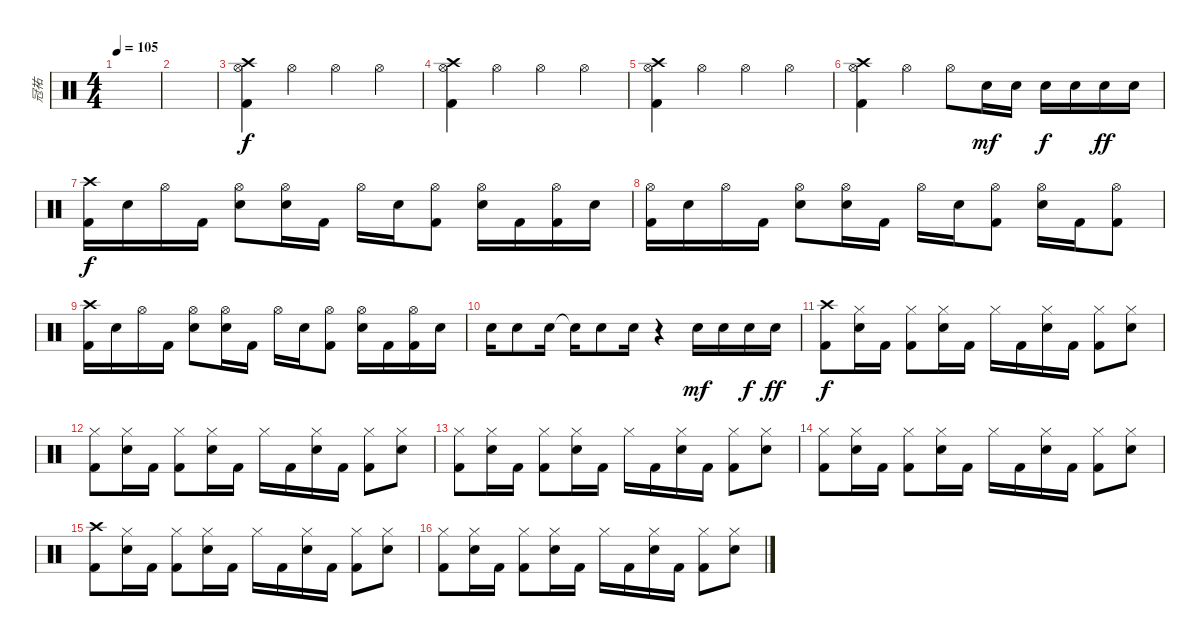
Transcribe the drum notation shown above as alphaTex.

\track ("冠祐" "冠祐") {instrument percussion}
\staff {score}
\articulation defaults
\ts (4 4)
\tempo 105
\clef neutral
\ks c
|
|
("Crash high (hit)" "Hi-Hat (open)" "Kick (hit) 2").4 "Hi-Hat (open)".4 "Hi-Hat (open)".4 "Hi-Hat (open)".4 |
("Crash high (hit)" "Hi-Hat (open)" "Kick (hit) 2").4 "Hi-Hat (open)".4 "Hi-Hat (open)".4 "Hi-Hat (open)".4 |
("Crash high (hit)" "Hi-Hat (open)" "Kick (hit) 2").4 "Hi-Hat (open)".4 "Hi-Hat (open)".4 "Hi-Hat (open)".4 |
("Crash high (hit)" "Hi-Hat (open)" "Kick (hit) 2").4 "Hi-Hat (open)".4 "Hi-Hat (open)".8 "Electric Snare (hit)".16{dy mf} "Electric Snare (hit)".16 "Electric Snare (hit)".16{dy f} "Electric Snare (hit)".16 "Electric Snare (hit)".16{dy ff} "Electric Snare (hit)".16 |
("Crash high (hit)" "Kick (hit) 2").16{dy f} "Electric Snare (hit)".16 "Hi-Hat (open)".16 "Kick (hit) 2".16 ("Hi-Hat (open)" "Electric Snare (hit)").8 ("Hi-Hat (open)" "Electric Snare (hit)").16 "Kick (hit) 2".16 "Hi-Hat (open)".16 "Electric Snare (hit)".16 ("Hi-Hat (open)" "Kick (hit) 2").8 ("Hi-Hat (open)" "Electric Snare (hit)").16 "Kick (hit) 2".16 ("Hi-Hat (open)" "Kick (hit) 2").16 "Electric Snare (hit)".16 |
("Hi-Hat (open)" "Kick (hit) 2").16 "Electric Snare (hit)".16 "Hi-Hat (open)".16 "Kick (hit) 2".16 ("Hi-Hat (open)" "Electric Snare (hit)").8 ("Hi-Hat (open)" "Electric Snare (hit)").16 "Kick (hit) 2".16 "Hi-Hat (open)".16 "Electric Snare (hit)".16 ("Hi-Hat (open)" "Kick (hit) 2").8 ("Hi-Hat (open)" "Electric Snare (hit)").16 "Kick (hit) 2".16 ("Hi-Hat (open)" "Kick (hit) 2").8 |
("Crash high (hit)" "Kick (hit) 2").16 "Electric Snare (hit)".16 "Hi-Hat (open)".16 "Kick (hit) 2".16 ("Hi-Hat (open)" "Electric Snare (hit)").8 ("Hi-Hat (open)" "Electric Snare (hit)").16 "Kick (hit) 2".16 "Hi-Hat (open)".16 "Electric Snare (hit)".16 ("Hi-Hat (open)" "Kick (hit) 2").8 ("Hi-Hat (open)" "Electric Snare (hit)").16 "Kick (hit) 2".16 ("Hi-Hat (open)" "Kick (hit) 2").16 "Electric Snare (hit)".16 |
"Electric Snare (hit)".16 "Electric Snare (hit)".8 "Electric Snare (hit)".16 "Electric Snare (hit)"{t}.16 "Electric Snare (hit)".8 "Electric Snare (hit)".16 r.4 "Electric Snare (hit)".16{dy mf} "Electric Snare (hit)".16 "Electric Snare (hit)".16{dy f} "Electric Snare (hit)".16{dy ff} |
("Crash high (hit)" "Kick (hit) 2").8{dy f} ("Hi-Hat (closed)" "Electric Snare (hit)").16 "Kick (hit) 2".16 ("Hi-Hat (closed)" "Kick (hit) 2").8 ("Hi-Hat (closed)" "Electric Snare (hit)").16 "Kick (hit) 2".16 "Hi-Hat (closed)".16 "Kick (hit) 2".16 ("Hi-Hat (closed)" "Electric Snare (hit)").16 "Kick (hit) 2".16 ("Hi-Hat (closed)" "Kick (hit) 2").8 ("Hi-Hat (closed)" "Electric Snare (hit)").8 |
("Hi-Hat (closed)" "Kick (hit) 2").8 ("Hi-Hat (closed)" "Electric Snare (hit)").16 "Kick (hit) 2".16 ("Hi-Hat (closed)" "Kick (hit) 2").8 ("Hi-Hat (closed)" "Electric Snare (hit)").16 "Kick (hit) 2".16 "Hi-Hat (closed)".16 "Kick (hit) 2".16 ("Hi-Hat (closed)" "Electric Snare (hit)").16 "Kick (hit) 2".16 ("Hi-Hat (closed)" "Kick (hit) 2").8 ("Hi-Hat (closed)" "Electric Snare (hit)").8 |
("Hi-Hat (closed)" "Kick (hit) 2").8 ("Hi-Hat (closed)" "Electric Snare (hit)").16 "Kick (hit) 2".16 ("Hi-Hat (closed)" "Kick (hit) 2").8 ("Hi-Hat (closed)" "Electric Snare (hit)").16 "Kick (hit) 2".16 "Hi-Hat (closed)".16 "Kick (hit) 2".16 ("Hi-Hat (closed)" "Electric Snare (hit)").16 "Kick (hit) 2".16 ("Hi-Hat (closed)" "Kick (hit) 2").8 ("Hi-Hat (closed)" "Electric Snare (hit)").8 |
("Hi-Hat (closed)" "Kick (hit) 2").8 ("Hi-Hat (closed)" "Electric Snare (hit)").16 "Kick (hit) 2".16 ("Hi-Hat (closed)" "Kick (hit) 2").8 ("Hi-Hat (closed)" "Electric Snare (hit)").16 "Kick (hit) 2".16 "Hi-Hat (closed)".16 "Kick (hit) 2".16 ("Hi-Hat (closed)" "Electric Snare (hit)").16 "Kick (hit) 2".16 ("Hi-Hat (closed)" "Kick (hit) 2").8 ("Hi-Hat (closed)" "Electric Snare (hit)").8 |
("Crash high (hit)" "Kick (hit) 2").8 ("Hi-Hat (closed)" "Electric Snare (hit)").16 "Kick (hit) 2".16 ("Hi-Hat (closed)" "Kick (hit) 2").8 ("Hi-Hat (closed)" "Electric Snare (hit)").16 "Kick (hit) 2".16 "Hi-Hat (closed)".16 "Kick (hit) 2".16 ("Hi-Hat (closed)" "Electric Snare (hit)").16 "Kick (hit) 2".16 ("Hi-Hat (closed)" "Kick (hit) 2").8 ("Hi-Hat (closed)" "Electric Snare (hit)").8 |
("Hi-Hat (closed)" "Kick (hit) 2").8 ("Hi-Hat (closed)" "Electric Snare (hit)").16 "Kick (hit) 2".16 ("Hi-Hat (closed)" "Kick (hit) 2").8 ("Hi-Hat (closed)" "Electric Snare (hit)").16 "Kick (hit) 2".16 "Hi-Hat (closed)".16 "Kick (hit) 2".16 ("Hi-Hat (closed)" "Electric Snare (hit)").16 "Kick (hit) 2".16 ("Hi-Hat (closed)" "Kick (hit) 2").8 ("Hi-Hat (closed)" "Electric Snare (hit)").8
